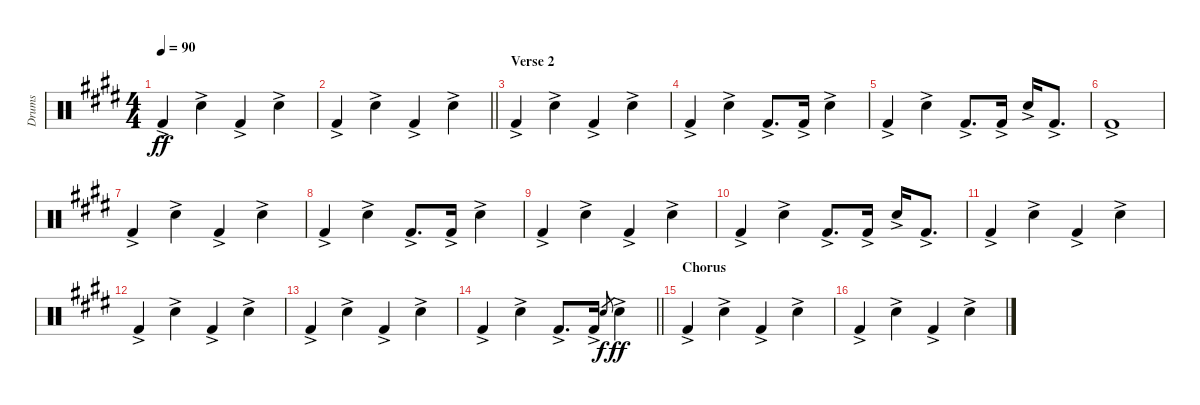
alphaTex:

\track ("Drums" "Drums") {instrument percussion}
\staff {score}
\articulation defaults
\ts (4 4)
\tempo 90
\clef neutral
\ks e "Kick (hit) 2"{ac}.4{dy ff} "Electric Snare (hit)"{ac}.4 "Kick (hit) 2"{ac}.4 "Electric Snare (hit)"{ac}.4
|
\barLineRight lightlight "Kick (hit) 2"{ac}.4 "Electric Snare (hit)"{ac}.4 "Kick (hit) 2"{ac}.4 "Electric Snare (hit)"{ac}.4
|
\section ("" "Verse 2")
"Kick (hit) 2"{ac}.4 "Electric Snare (hit)"{ac}.4 "Kick (hit) 2"{ac}.4 "Electric Snare (hit)"{ac}.4 |
"Kick (hit) 2"{ac}.4 "Electric Snare (hit)"{ac}.4 "Kick (hit) 2"{ac}.8{d} "Kick (hit) 2"{ac}.16 "Electric Snare (hit)"{ac}.4 |
"Kick (hit) 2"{ac}.4 "Electric Snare (hit)"{ac}.4 "Kick (hit) 2"{ac}.8{d} "Kick (hit) 2"{ac}.16 "Electric Snare (hit)"{ac}.16 "Kick (hit) 2"{ac}.8{d} |
"Kick (hit) 2"{ac}.1 |
"Kick (hit) 2"{ac}.4 "Electric Snare (hit)"{ac}.4 "Kick (hit) 2"{ac}.4 "Electric Snare (hit)"{ac}.4 |
"Kick (hit) 2"{ac}.4 "Electric Snare (hit)"{ac}.4 "Kick (hit) 2"{ac}.8{d} "Kick (hit) 2"{ac}.16 "Electric Snare (hit)"{ac}.4 |
"Kick (hit) 2"{ac}.4 "Electric Snare (hit)"{ac}.4 "Kick (hit) 2"{ac}.4 "Electric Snare (hit)"{ac}.4 |
"Kick (hit) 2"{ac}.4 "Electric Snare (hit)"{ac}.4 "Kick (hit) 2"{ac}.8{d} "Kick (hit) 2"{ac}.16 "Electric Snare (hit)"{ac}.16 "Kick (hit) 2"{ac}.8{d} |
"Kick (hit) 2"{ac}.4 "Electric Snare (hit)"{ac}.4 "Kick (hit) 2"{ac}.4 "Electric Snare (hit)"{ac}.4 |
"Kick (hit) 2"{ac}.4 "Electric Snare (hit)"{ac}.4 "Kick (hit) 2"{ac}.4 "Electric Snare (hit)"{ac}.4 |
"Kick (hit) 2"{ac}.4 "Electric Snare (hit)"{ac}.4 "Kick (hit) 2"{ac}.4 "Electric Snare (hit)"{ac}.4 |
\barLineRight lightlight "Kick (hit) 2"{ac}.4 "Electric Snare (hit)"{ac}.4 "Kick (hit) 2"{ac}.8{d} "Kick (hit) 2"{ac}.16 "Snare (hit) 2".8{gr dy f} "Electric Snare (hit)"{ac}.4{dy ff}
|
\section ("" "Chorus")
"Kick (hit) 2"{ac}.4 "Electric Snare (hit)"{ac}.4 "Kick (hit) 2"{ac}.4 "Electric Snare (hit)"{ac}.4 |
"Kick (hit) 2"{ac}.4 "Electric Snare (hit)"{ac}.4 "Kick (hit) 2"{ac}.4 "Electric Snare (hit)"{ac}.4
